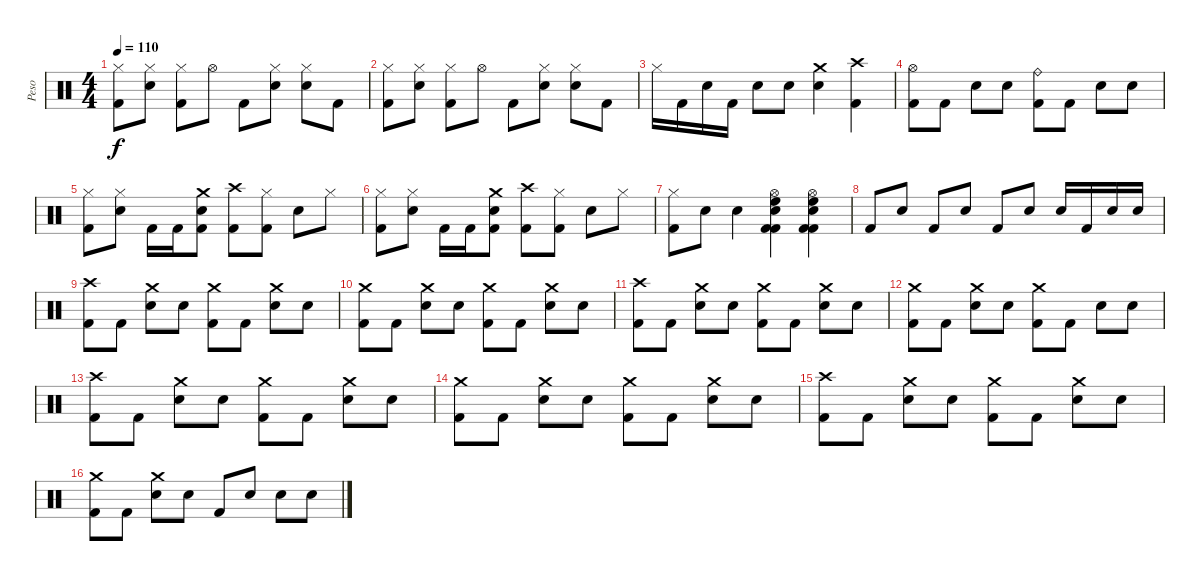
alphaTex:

\track ("Peso" "Peso") {instrument percussion}
\staff {score}
\articulation defaults
\ts (4 4)
\tempo 110
\clef neutral
\ks c
("Hi-Hat (closed)" "Kick (hit) 2").8{dy f} ("Hi-Hat (closed)" "Snare (hit) 2").8 ("Hi-Hat (closed)" "Kick (hit) 2").8 "Hi-Hat (open)".8 "Kick (hit) 2".8 ("Hi-Hat (closed)" "Snare (hit) 2").8 ("Hi-Hat (closed)" "Snare (hit) 2").8 "Kick (hit) 2".8 |
("Hi-Hat (closed)" "Kick (hit) 2").8 ("Hi-Hat (closed)" "Snare (hit) 2").8 ("Hi-Hat (closed)" "Kick (hit) 2").8 "Hi-Hat (open)".8 "Kick (hit) 2".8 ("Hi-Hat (closed)" "Snare (hit) 2").8 ("Hi-Hat (closed)" "Snare (hit) 2").8 "Kick (hit) 2".8 |
"Hi-Hat (closed)".16 "Kick (hit) 2".16 "Snare (hit) 2".16 "Kick (hit) 2".16 "Snare (hit) 2".8 "Snare (hit) 2".8 ("Crash medium (hit)" "Snare (hit) 2").4 ("Crash high (hit)" "Kick (hit) 2").4 |
("Hi-Hat (open)" "Kick (hit) 2").8 "Kick (hit) 2".8 "Snare (hit) 2".8 "Snare (hit) 2".8 ("Ride (bell)" "Kick (hit) 2").8 "Kick (hit) 2".8 "Snare (hit) 2".8 "Snare (hit) 2".8 |
("Hi-Hat (closed)" "Kick (hit) 2").8 ("Hi-Hat (closed)" "Snare (hit) 2").8 "Kick (hit) 2".16 "Kick (hit) 2".16 ("Crash medium (hit)" "Snare (hit) 2" "Kick (hit) 2").8 ("Crash high (hit)" "Kick (hit) 2").8 ("Hi-Hat (closed)" "Kick (hit) 2").8 "Snare (hit) 2".8 "Hi-Hat (closed)".8 |
("Hi-Hat (closed)" "Kick (hit) 2").8 ("Hi-Hat (closed)" "Snare (hit) 2").8 "Kick (hit) 2".16 "Kick (hit) 2".16 ("Crash medium (hit)" "Snare (hit) 2" "Kick (hit) 2").8 ("Crash high (hit)" "Kick (hit) 2").8 ("Hi-Hat (closed)" "Kick (hit) 2").8 "Snare (hit) 2".8 "Hi-Hat (closed)".8 |
("Hi-Hat (closed)" "Kick (hit) 2").8 "Snare (hit) 2".8 "Snare (hit) 2".4 ("Hi-Hat (open)" "High Floor Tom (hit)" "Snare (hit) 2" "Kick (hit) 2" "Kick (hit) 2").4 ("Hi-Hat (open)" "High Floor Tom (hit)" "Snare (hit) 2" "Kick (hit) 2" "Kick (hit) 2").4 |
"Kick (hit) 2".8 "Snare (hit) 2".8 "Kick (hit) 2".8 "Snare (hit) 2".8 "Kick (hit) 2".8 "Snare (hit) 2".8 "Snare (hit) 2".16 "Kick (hit) 2".16 "Snare (hit) 2".16 "Snare (hit) 2".16 |
("Crash high (hit)" "Kick (hit) 2").8 "Kick (hit) 2".8 ("Crash medium (hit)" "Snare (hit) 2").8 "Snare (hit) 2".8 ("Crash medium (hit)" "Kick (hit) 2").8 "Kick (hit) 2".8 ("Crash medium (hit)" "Snare (hit) 2").8 "Snare (hit) 2".8 |
("Crash medium (hit)" "Kick (hit) 2").8 "Kick (hit) 2".8 ("Crash medium (hit)" "Snare (hit) 2").8 "Snare (hit) 2".8 ("Crash medium (hit)" "Kick (hit) 2").8 "Kick (hit) 2".8 ("Crash medium (hit)" "Snare (hit) 2").8 "Snare (hit) 2".8 |
("Crash high (hit)" "Kick (hit) 2").8 "Kick (hit) 2".8 ("Crash medium (hit)" "Snare (hit) 2").8 "Snare (hit) 2".8 ("Crash medium (hit)" "Kick (hit) 2").8 "Kick (hit) 2".8 ("Crash medium (hit)" "Snare (hit) 2").8 "Snare (hit) 2".8 |
("Crash medium (hit)" "Kick (hit) 2").8 "Kick (hit) 2".8 ("Crash medium (hit)" "Snare (hit) 2").8 "Snare (hit) 2".8 ("Crash medium (hit)" "Kick (hit) 2").8 "Kick (hit) 2".8 "Snare (hit) 2".8 "Snare (hit) 2".8 |
("Crash high (hit)" "Kick (hit) 2").8 "Kick (hit) 2".8 ("Crash medium (hit)" "Snare (hit) 2").8 "Snare (hit) 2".8 ("Crash medium (hit)" "Kick (hit) 2").8 "Kick (hit) 2".8 ("Crash medium (hit)" "Snare (hit) 2").8 "Snare (hit) 2".8 |
("Crash medium (hit)" "Kick (hit) 2").8 "Kick (hit) 2".8 ("Crash medium (hit)" "Snare (hit) 2").8 "Snare (hit) 2".8 ("Crash medium (hit)" "Kick (hit) 2").8 "Kick (hit) 2".8 ("Crash medium (hit)" "Snare (hit) 2").8 "Snare (hit) 2".8 |
("Crash high (hit)" "Kick (hit) 2").8 "Kick (hit) 2".8 ("Crash medium (hit)" "Snare (hit) 2").8 "Snare (hit) 2".8 ("Crash medium (hit)" "Kick (hit) 2").8 "Kick (hit) 2".8 ("Crash medium (hit)" "Snare (hit) 2").8 "Snare (hit) 2".8 |
("Crash medium (hit)" "Kick (hit) 2").8 "Kick (hit) 2".8 ("Crash medium (hit)" "Snare (hit) 2").8 "Snare (hit) 2".8 "Kick (hit) 2".8 "Snare (hit) 2".8 "Snare (hit) 2".8 "Snare (hit) 2".8
